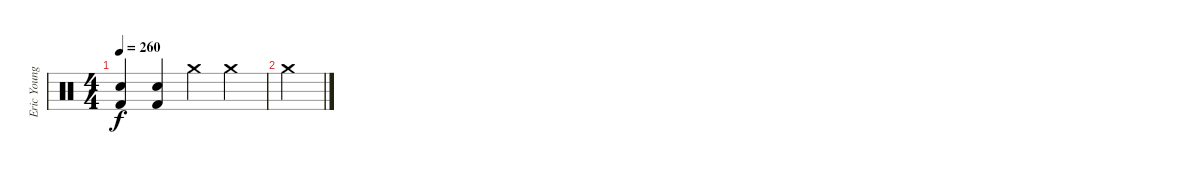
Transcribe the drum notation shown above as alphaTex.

\track ("Eric Young (Drums)" "Eric Young") {instrument percussion}
\staff {score}
\articulation defaults
\ts (4 4)
\tempo 260
\clef neutral
\ks c
("Kick (hit) 2" "Snare (hit) 2").4{dy f} ("Kick (hit) 2" "Snare (hit) 2").4 "Crash medium (hit)".4 "Crash medium (hit)".4 |
"Crash medium (hit)".4
